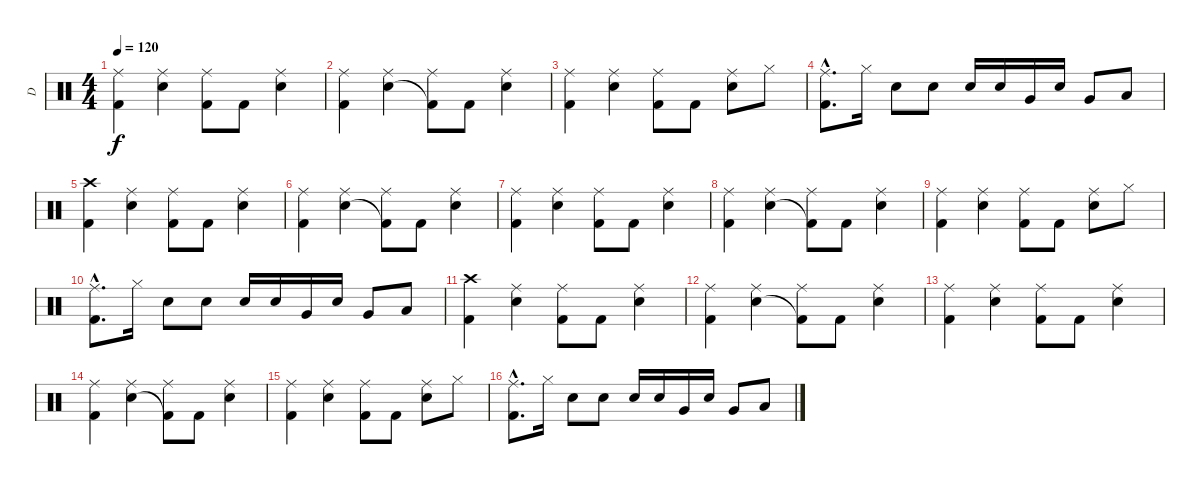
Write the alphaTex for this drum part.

\track ("D" "D") {instrument percussion}
\staff {score}
\articulation defaults
\ts (4 4)
\tempo 120
\clef neutral
\ks c
("Ride (middle)" "Kick (hit) 2").4{dy f} ("Ride (middle)" "Snare (hit) 2").4 ("Ride (middle)" "Kick (hit) 2").8 "Kick (hit) 2".8 ("Ride (middle)" "Snare (hit) 2").4 |
("Ride (middle)" "Kick (hit) 2").4 ("Ride (middle)" "Snare (hit) 2").4 ("Ride (middle)" "Kick (hit) 2"{t}).8 "Kick (hit) 2".8 ("Ride (middle)" "Snare (hit) 2").4 |
("Ride (middle)" "Kick (hit) 2").4 ("Ride (middle)" "Snare (hit) 2").4 ("Ride (middle)" "Kick (hit) 2").8 "Kick (hit) 2".8 ("Ride (middle)" "Snare (hit) 2").8 "Hi-Hat (closed)".8 |
("Ride (middle)"{hac} "Kick (hit) 2"{hac}).8{d} "Hi-Hat (closed)".16 "Snare (hit) 2".8 "Snare (hit) 2".8 "Snare (hit) 2".16 "Snare (hit) 2".16 "Very Low Tom (hit)".16 "Snare (hit) 2".16 "Very Low Tom (hit)".8 "Low Floor Tom (hit)".8 |
("Crash high (hit)" "Kick (hit) 2").4 ("Ride (middle)" "Snare (hit) 2").4 ("Ride (middle)" "Kick (hit) 2").8 "Kick (hit) 2".8 ("Ride (middle)" "Snare (hit) 2").4 |
("Ride (middle)" "Kick (hit) 2").4 ("Ride (middle)" "Snare (hit) 2").4 ("Ride (middle)" "Kick (hit) 2"{t}).8 "Kick (hit) 2".8 ("Ride (middle)" "Snare (hit) 2").4 |
("Ride (middle)" "Kick (hit) 2").4 ("Ride (middle)" "Snare (hit) 2").4 ("Ride (middle)" "Kick (hit) 2").8 "Kick (hit) 2".8 ("Ride (middle)" "Snare (hit) 2").4 |
("Ride (middle)" "Kick (hit) 2").4 ("Ride (middle)" "Snare (hit) 2").4 ("Ride (middle)" "Kick (hit) 2"{t}).8 "Kick (hit) 2".8 ("Ride (middle)" "Snare (hit) 2").4 |
("Ride (middle)" "Kick (hit) 2").4 ("Ride (middle)" "Snare (hit) 2").4 ("Ride (middle)" "Kick (hit) 2").8 "Kick (hit) 2".8 ("Ride (middle)" "Snare (hit) 2").8 "Hi-Hat (closed)".8 |
("Ride (middle)"{hac} "Kick (hit) 2"{hac}).8{d} "Hi-Hat (closed)".16 "Snare (hit) 2".8 "Snare (hit) 2".8 "Snare (hit) 2".16 "Snare (hit) 2".16 "Very Low Tom (hit)".16 "Snare (hit) 2".16 "Very Low Tom (hit)".8 "Low Floor Tom (hit)".8 |
("Crash high (hit)" "Kick (hit) 2").4 ("Ride (middle)" "Snare (hit) 2").4 ("Ride (middle)" "Kick (hit) 2").8 "Kick (hit) 2".8 ("Ride (middle)" "Snare (hit) 2").4 |
("Ride (middle)" "Kick (hit) 2").4 ("Ride (middle)" "Snare (hit) 2").4 ("Ride (middle)" "Kick (hit) 2"{t}).8 "Kick (hit) 2".8 ("Ride (middle)" "Snare (hit) 2").4 |
("Ride (middle)" "Kick (hit) 2").4 ("Ride (middle)" "Snare (hit) 2").4 ("Ride (middle)" "Kick (hit) 2").8 "Kick (hit) 2".8 ("Ride (middle)" "Snare (hit) 2").4 |
("Ride (middle)" "Kick (hit) 2").4 ("Ride (middle)" "Snare (hit) 2").4 ("Ride (middle)" "Kick (hit) 2"{t}).8 "Kick (hit) 2".8 ("Ride (middle)" "Snare (hit) 2").4 |
("Ride (middle)" "Kick (hit) 2").4 ("Ride (middle)" "Snare (hit) 2").4 ("Ride (middle)" "Kick (hit) 2").8 "Kick (hit) 2".8 ("Ride (middle)" "Snare (hit) 2").8 "Hi-Hat (closed)".8 |
("Ride (middle)"{hac} "Kick (hit) 2"{hac}).8{d} "Hi-Hat (closed)".16 "Snare (hit) 2".8 "Snare (hit) 2".8 "Snare (hit) 2".16 "Snare (hit) 2".16 "Very Low Tom (hit)".16 "Snare (hit) 2".16 "Very Low Tom (hit)".8 "Low Floor Tom (hit)".8
